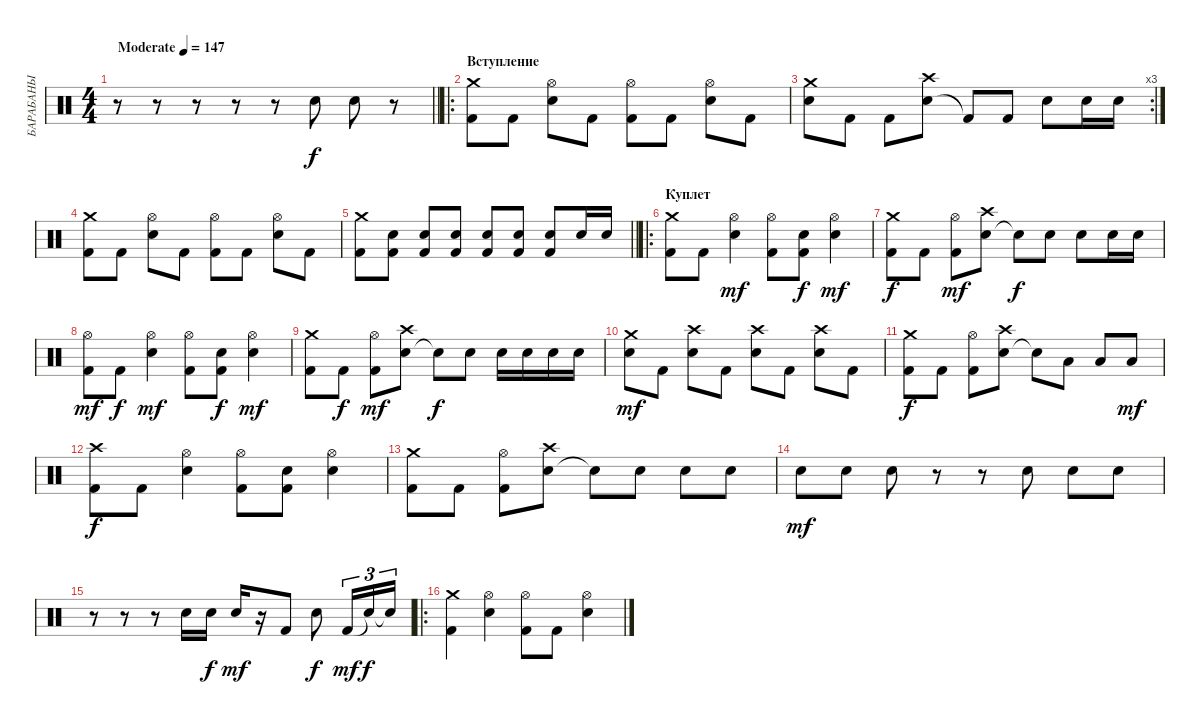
\track ("БАРАБАНЫ" "БАРАБАНЫ") {instrument percussion}
\staff {score}
\articulation defaults
\ts (4 4)
\tempo (147 "Moderate")
\clef neutral
\barLineRight lightlight
\ks c
r.8{dy f} r.8 r.8 r.8 r.8 "Electric Snare (hit)".8 "Electric Snare (hit)".8 r.8 |
\ro
\section ("" "Вступление")
("Kick (hit) 2" "Crash medium (hit)").8 "Kick (hit) 2".8 ("Electric Snare (hit)" "Hi-Hat (open)").8 "Kick (hit) 2".8 ("Kick (hit) 2" "Hi-Hat (open)").8 "Kick (hit) 2".8 ("Electric Snare (hit)" "Hi-Hat (open)").8 "Kick (hit) 2".8 |
\rc 3
("Electric Snare (hit)" "Crash medium (hit)").8 "Kick (hit) 2".8 "Kick (hit) 2".8 ("Electric Snare (hit)" "Crash high (hit)").8 "Kick (hit) 2"{t}.8 "Kick (hit) 2".8 "Electric Snare (hit)".8 "Electric Snare (hit)".16 "Electric Snare (hit)".16 |
("Kick (hit) 2" "Crash medium (hit)").8 "Kick (hit) 2".8 ("Electric Snare (hit)" "Hi-Hat (open)").8 "Kick (hit) 2".8 ("Kick (hit) 2" "Hi-Hat (open)").8 "Kick (hit) 2".8 ("Electric Snare (hit)" "Hi-Hat (open)").8 "Kick (hit) 2".8 |
\barLineRight lightlight
("Crash medium (hit)" "Kick (hit) 2").8 ("Electric Snare (hit)" "Kick (hit) 2").8 ("Electric Snare (hit)" "Kick (hit) 2").8 ("Electric Snare (hit)" "Kick (hit) 2").8 ("Electric Snare (hit)" "Kick (hit) 2").8 ("Electric Snare (hit)" "Kick (hit) 2").8 ("Electric Snare (hit)" "Kick (hit) 2").8 "Electric Snare (hit)".16 "Electric Snare (hit)".16 |
\ro
\section ("" "Куплет")
("Kick (hit) 2" "Crash medium (hit)").8 "Kick (hit) 2".8 ("Electric Snare (hit)" "Hi-Hat (open)").4{dy mf} ("Kick (hit) 2" "Hi-Hat (open)").8 ("Kick (hit) 2" "Snare (hit)").8{dy f} ("Electric Snare (hit)" "Hi-Hat (open)").4{dy mf} |
("Kick (hit) 2" "Crash medium (hit)").8{dy f} "Kick (hit) 2".8 ("Kick (hit) 2" "Hi-Hat (open)").8{dy mf} ("Electric Snare (hit)" "Crash high (hit)").8 "Electric Snare (hit)"{t}.8{dy f} "Electric Snare (hit)".8 "Electric Snare (hit)".8 "Electric Snare (hit)".16 "Electric Snare (hit)".16 |
("Kick (hit) 2" "Hi-Hat (open)").8{dy mf} "Kick (hit) 2".8{dy f} ("Electric Snare (hit)" "Hi-Hat (open)").4{dy mf} ("Kick (hit) 2" "Hi-Hat (open)").8 ("Kick (hit) 2" "Snare (hit)").8{dy f} ("Electric Snare (hit)" "Hi-Hat (open)").4{dy mf} |
("Kick (hit) 2" "Crash medium (hit)").8 "Kick (hit) 2".8{dy f} ("Kick (hit) 2" "Hi-Hat (open)").8{dy mf} ("Electric Snare (hit)" "Crash high (hit)").8 "Electric Snare (hit)"{t}.8{dy f} "Electric Snare (hit)".8 "Electric Snare (hit)".16 "Electric Snare (hit)".16 "Electric Snare (hit)".16 "Electric Snare (hit)".16 |
("Crash medium (hit)" "Electric Snare (hit)").8{dy mf} "Kick (hit) 2".8 ("Crash high (hit)" "Electric Snare (hit)").8 "Kick (hit) 2".8 ("Crash high (hit)" "Electric Snare (hit)").8 "Kick (hit) 2".8 ("Crash high (hit)" "Electric Snare (hit)").8 "Kick (hit) 2".8 |
("Kick (hit) 2" "Crash medium (hit)").8{dy f} "Kick (hit) 2".8 ("Kick (hit) 2" "Hi-Hat (open)").8 ("Electric Snare (hit)" "Crash high (hit)").8 "Electric Snare (hit)"{t}.8 "Low Tom (hit)".8 "Low Tom (hit)".8 "Low Tom (hit)".8{dy mf} |
("Kick (hit) 2" "Crash high (hit)").8{dy f} "Kick (hit) 2".8 ("Electric Snare (hit)" "Hi-Hat (open)").4 ("Kick (hit) 2" "Hi-Hat (open)").8 ("Kick (hit) 2" "Snare (hit)").8 ("Electric Snare (hit)" "Hi-Hat (open)").4 |
("Kick (hit) 2" "Crash medium (hit)").8 "Kick (hit) 2".8 ("Kick (hit) 2" "Hi-Hat (open)").8 ("Electric Snare (hit)" "Crash high (hit)").8 "Electric Snare (hit)"{t}.8 "Electric Snare (hit)".8 "Electric Snare (hit)".8 "Electric Snare (hit)".8 |
"Electric Snare (hit)".8{dy mf} "Electric Snare (hit)".8 "Electric Snare (hit)".8 r.8 r.8 "Electric Snare (hit)".8 "Electric Snare (hit)".8 "Electric Snare (hit)".8 |
r.8 r.8 r.8 "Electric Snare (hit)".16 "Electric Snare (hit)".16{dy f} "Electric Snare (hit)".16{dy mf} r.16 "Kick (hit) 2".8 "Electric Snare (hit)".8{dy f} "Kick (hit) 2".16{tu (3 2) dy mf} "Snare (hit)"{t}.16{tu (3 2) dy f} "Snare (hit)"{t}.16{tu (3 2)} |
\ro
("Kick (hit) 2" "Crash medium (hit)").4 ("Electric Snare (hit)" "Hi-Hat (open)").4 ("Kick (hit) 2" "Hi-Hat (open)").8 "Kick (hit) 2".8 ("Electric Snare (hit)" "Hi-Hat (open)").4
